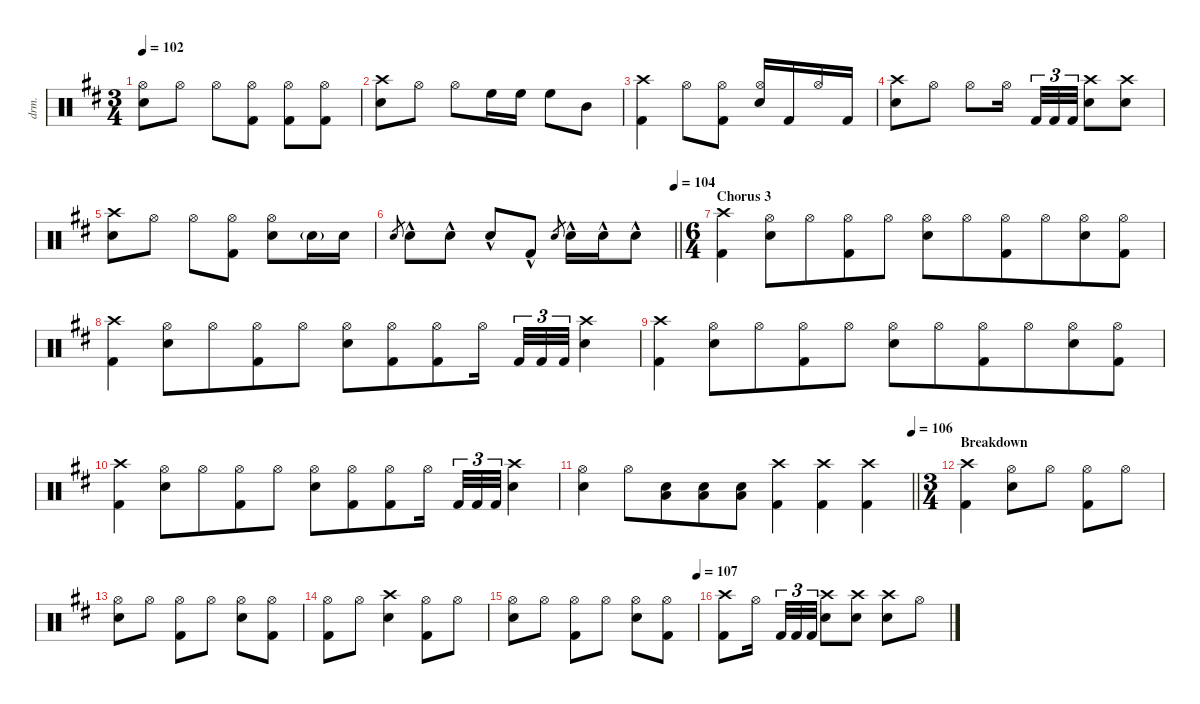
\defaultSystemsLayout 4
\hideDynamics
\bracketExtendMode nobrackets
\otherSystemsTrackNameOrientation horizontal
\track ("Lars Ulrich" "drm.") {defaultSystemsLayout 4 instrument percussion}
\staff {score}
\articulation defaults
\ts (3 4)
\tempo 102
\clef neutral
\ks bminor
("Hi-Hat (open)"{acc forcenatural} "Snare (hit) 2"{acc forcenatural}).8{dy mf beam Down} "Hi-Hat (open)"{acc forcenatural}.8{beam Down} "Hi-Hat (open)"{acc forcenatural}.8{beam Down} ("Hi-Hat (open)"{acc forcenatural} "Kick (hit) 2"{acc forcenatural}).8{beam Down} ("Hi-Hat (open)"{acc forcenatural} "Kick (hit) 2"{acc forcenatural}).8{beam Down} ("Hi-Hat (open)"{acc forcenatural} "Kick (hit) 2"{acc forcenatural}).8{beam Down} |
("Crash high (hit)"{acc forcenatural} "Snare (hit) 2"{acc forcenatural}).8{dy f beam Down} "Hi-Hat (open)"{acc forcenatural}.8{dy mf beam Down} "Hi-Hat (open)"{acc forcenatural}.8{beam Down} "High Floor Tom (hit)"{acc forcenatural}.16{dy f beam Down} "High Floor Tom (hit)"{acc forcenatural}.16{dy fff beam Down} "High Floor Tom (hit)"{acc forcenatural}.8{beam Down} "Mid Tom (hit)"{acc forcenatural}.8{beam Down} |
("Crash high (hit)"{acc forcenatural} "Kick (hit) 2"{acc forcenatural}).4{dy f beam Down} "Hi-Hat (open)"{acc forcenatural}.8{dy mf beam Down} ("Hi-Hat (open)"{acc forcenatural} "Kick (hit) 2"{acc forcenatural}).8{beam Down} ("Hi-Hat (open)"{acc forcenatural} "Snare (hit) 2"{acc forcenatural}).16{beam Up} "Kick (hit) 2"{acc forcenatural}.16{dy fff beam Up} "Hi-Hat (open)"{acc forcenatural}.16{dy mf beam Up} "Kick (hit) 2"{acc forcenatural}.16{dy fff beam Up} |
("Crash high (hit)"{acc forcenatural} "Snare (hit) 2"{acc forcenatural}).8{dy f beam Down} "Hi-Hat (open)"{acc forcenatural}.8{dy mf beam Down} "Hi-Hat (open)"{acc forcenatural}.8{beam Down} "Hi-Hat (open)"{acc forcenatural}.16{beam Down} "Kick (hit) 2"{acc forcenatural}.32{tu (3 2) dy fff beam Up} "Kick (hit) 2"{acc forcenatural}.32{tu (3 2) beam Up} "Kick (hit) 2"{acc forcenatural}.32{tu (3 2) beam Up} ("Crash high (hit)"{acc forcenatural} "Snare (hit) 2"{acc forcenatural}).8{dy f beam Down} ("Crash high (hit)"{acc forcenatural} "Snare (hit) 2"{acc forcenatural}).8{beam Down} |
("Crash high (hit)"{acc forcenatural} "Snare (hit) 2"{acc forcenatural}).8{beam Down} "Hi-Hat (open)"{acc forcenatural}.8{dy mf beam Down} "Hi-Hat (open)"{acc forcenatural}.8{beam Down} ("Hi-Hat (open)"{acc forcenatural} "Kick (hit) 2"{acc forcenatural}).8{beam Down} ("Hi-Hat (open)"{acc forcenatural} "Snare (hit) 2"{acc forcenatural}).8{beam Down} "Snare (hit) 2"{g acc forcenatural}.16{dy ff beam Down} "Snare (hit) 2"{acc forcenatural}.16{dy fff beam Down} |
\tempo (104 1)
\barLineRight lightlight "Electric Snare (hit)"{acc forcenatural}.8{gr dy mp beam Up} "Snare (hit) 2"{hac acc forcenatural}.8{dy f beam Down} "Snare (hit) 2"{hac acc forcenatural}.8{beam Down} "Snare (hit) 2"{hac acc forcenatural}.8{beam Up} "Kick (hit) 2"{hac acc forcenatural}.8{beam Up} "Electric Snare (hit)"{acc forcenatural}.8{gr dy mp beam Up} "Snare (hit) 2"{hac acc forcenatural}.16{dy f beam Down} "Snare (hit) 2"{hac acc forcenatural}.16{beam Down} "Snare (hit) 2"{hac acc forcenatural}.8{beam Down}
|
\ts (6 4)
\beaming (8 6 6)
\section ("" "Chorus 3")
("Crash high (hit)"{acc forcenatural} "Kick (hit) 2"{acc forcenatural}).4{beam Down} ("Hi-Hat (open)"{acc forcenatural} "Snare (hit) 2"{acc forcenatural}).8{beam Down} "Hi-Hat (open)"{acc forcenatural}.8{beam Down} ("Hi-Hat (open)"{acc forcenatural} "Kick (hit) 2"{acc forcenatural}).8{beam Down} "Hi-Hat (open)"{acc forcenatural}.8{beam Down} ("Hi-Hat (open)"{acc forcenatural} "Snare (hit) 2"{acc forcenatural}).8{beam Down} "Hi-Hat (open)"{acc forcenatural}.8{beam Down} ("Hi-Hat (open)"{acc forcenatural} "Kick (hit) 2"{acc forcenatural}).8{beam Down} "Hi-Hat (open)"{acc forcenatural}.8{beam Down} ("Hi-Hat (open)"{acc forcenatural} "Snare (hit) 2"{acc forcenatural}).8{beam Down} ("Hi-Hat (open)"{acc forcenatural} "Kick (hit) 2"{acc forcenatural}).8{beam Down} |
("Crash high (hit)"{acc forcenatural} "Kick (hit) 2"{acc forcenatural}).4{beam Down} ("Hi-Hat (open)"{acc forcenatural} "Snare (hit) 2"{acc forcenatural}).8{beam Down} "Hi-Hat (open)"{acc forcenatural}.8{beam Down} ("Hi-Hat (open)"{acc forcenatural} "Kick (hit) 2"{acc forcenatural}).8{beam Down} "Hi-Hat (open)"{acc forcenatural}.8{beam Down} ("Hi-Hat (open)"{acc forcenatural} "Snare (hit) 2"{acc forcenatural}).8{beam Down} ("Hi-Hat (open)"{acc forcenatural} "Kick (hit) 2"{acc forcenatural}).8{beam Down} ("Hi-Hat (open)"{acc forcenatural} "Kick (hit) 2"{acc forcenatural}).8{beam Down} "Hi-Hat (open)"{acc forcenatural}.16{beam Down} "Kick (hit) 2"{acc forcenatural}.32{tu (3 2) dy fff beam Up} "Kick (hit) 2"{acc forcenatural}.32{tu (3 2) beam Up} "Kick (hit) 2"{acc forcenatural}.32{tu (3 2) beam Up} ("Crash high (hit)"{acc forcenatural} "Snare (hit) 2"{acc forcenatural}).4{dy f beam Down} |
("Crash high (hit)"{acc forcenatural} "Kick (hit) 2"{acc forcenatural}).4{beam Down} ("Hi-Hat (open)"{acc forcenatural} "Snare (hit) 2"{acc forcenatural}).8{beam Down} "Hi-Hat (open)"{acc forcenatural}.8{beam Down} ("Hi-Hat (open)"{acc forcenatural} "Kick (hit) 2"{acc forcenatural}).8{beam Down} "Hi-Hat (open)"{acc forcenatural}.8{beam Down} ("Hi-Hat (open)"{acc forcenatural} "Snare (hit) 2"{acc forcenatural}).8{beam Down} "Hi-Hat (open)"{acc forcenatural}.8{beam Down} ("Hi-Hat (open)"{acc forcenatural} "Kick (hit) 2"{acc forcenatural}).8{beam Down} "Hi-Hat (open)"{acc forcenatural}.8{beam Down} ("Hi-Hat (open)"{acc forcenatural} "Snare (hit) 2"{acc forcenatural}).8{beam Down} ("Hi-Hat (open)"{acc forcenatural} "Kick (hit) 2"{acc forcenatural}).8{beam Down} |
("Crash high (hit)"{acc forcenatural} "Kick (hit) 2"{acc forcenatural}).4{beam Down} ("Hi-Hat (open)"{acc forcenatural} "Snare (hit) 2"{acc forcenatural}).8{beam Down} "Hi-Hat (open)"{acc forcenatural}.8{beam Down} ("Hi-Hat (open)"{acc forcenatural} "Kick (hit) 2"{acc forcenatural}).8{beam Down} "Hi-Hat (open)"{acc forcenatural}.8{beam Down} ("Hi-Hat (open)"{acc forcenatural} "Snare (hit) 2"{acc forcenatural}).8{beam Down} ("Hi-Hat (open)"{acc forcenatural} "Kick (hit) 2"{acc forcenatural}).8{beam Down} ("Hi-Hat (open)"{acc forcenatural} "Kick (hit) 2"{acc forcenatural}).8{beam Down} "Hi-Hat (open)"{acc forcenatural}.16{beam Down} "Kick (hit) 2"{acc forcenatural}.32{tu (3 2) dy fff beam Up} "Kick (hit) 2"{acc forcenatural}.32{tu (3 2) beam Up} "Kick (hit) 2"{acc forcenatural}.32{tu (3 2) beam Up} ("Crash high (hit)"{acc forcenatural} "Snare (hit) 2"{acc forcenatural}).4{dy f beam Down} |
\tempo (106 1)
\barLineRight lightlight
("Hi-Hat (open)"{acc forcenatural} "Snare (hit) 2"{acc forcenatural}).4{beam Down} "Hi-Hat (open)"{acc forcenatural}.8{beam Down} ("Snare (hit) 2"{acc forcenatural} "Low Floor Tom (hit)"{acc forcenatural}).8{beam Down} ("Snare (hit) 2"{acc forcenatural} "Low Floor Tom (hit)"{acc forcenatural}).8{beam Down} ("Snare (hit) 2"{acc forcenatural} "Low Floor Tom (hit)"{acc forcenatural}).8{beam Down} ("Crash high (hit)"{acc forcenatural} "Kick (hit) 2"{acc forcenatural}).4{beam Down} ("Crash high (hit)"{acc forcenatural} "Kick (hit) 2"{acc forcenatural}).4{beam Down} ("Crash high (hit)"{acc forcenatural} "Kick (hit) 2"{acc forcenatural}).4{beam Down} |
\ts (3 4)
\beaming (8 2 2 2)
\section ("" "Breakdown")
("Crash high (hit)"{acc forcenatural} "Kick (hit) 2"{acc forcenatural}).4{beam Down} ("Hi-Hat (open)"{acc forcenatural} "Snare (hit) 2"{acc forcenatural}).8{beam Down} "Hi-Hat (open)"{acc forcenatural}.8{beam Down} ("Hi-Hat (open)"{acc forcenatural} "Kick (hit) 2"{acc forcenatural}).8{beam Down} "Hi-Hat (open)"{acc forcenatural}.8{beam Down} |
("Hi-Hat (open)"{acc forcenatural} "Snare (hit) 2"{acc forcenatural}).8{beam Down} "Hi-Hat (open)"{acc forcenatural}.8{beam Down} ("Hi-Hat (open)"{acc forcenatural} "Kick (hit) 2"{acc forcenatural}).8{beam Down} "Hi-Hat (open)"{acc forcenatural}.8{beam Down} ("Hi-Hat (open)"{acc forcenatural} "Snare (hit) 2"{acc forcenatural}).8{beam Down} ("Hi-Hat (open)"{acc forcenatural} "Kick (hit) 2"{acc forcenatural}).8{beam Down} |
("Hi-Hat (open)"{acc forcenatural} "Kick (hit) 2"{acc forcenatural}).8{beam Down} "Hi-Hat (open)"{acc forcenatural}.8{beam Down} ("Crash high (hit)"{acc forcenatural} "Snare (hit) 2"{acc forcenatural}).4{beam Down} ("Hi-Hat (open)"{acc forcenatural} "Kick (hit) 2"{acc forcenatural}).8{beam Down} "Hi-Hat (open)"{acc forcenatural}.8{beam Down} |
\tempo (107 1)
("Hi-Hat (open)"{acc forcenatural} "Snare (hit) 2"{acc forcenatural}).8{beam Down} "Hi-Hat (open)"{acc forcenatural}.8{beam Down} ("Hi-Hat (open)"{acc forcenatural} "Kick (hit) 2"{acc forcenatural}).8{beam Down} "Hi-Hat (open)"{acc forcenatural}.8{beam Down} ("Hi-Hat (open)"{acc forcenatural} "Snare (hit) 2"{acc forcenatural}).8{beam Down} ("Hi-Hat (open)"{acc forcenatural} "Kick (hit) 2"{acc forcenatural}).8{beam Down} |
("Crash high (hit)"{acc forcenatural} "Kick (hit) 2"{acc forcenatural}).8{beam Down} "Hi-Hat (open)"{acc forcenatural}.16{beam Down} "Kick (hit) 2"{acc forcenatural}.32{tu (3 2) dy fff beam Up} "Kick (hit) 2"{acc forcenatural}.32{tu (3 2) beam Up} "Kick (hit) 2"{acc forcenatural}.32{tu (3 2) beam Up} ("Crash high (hit)"{acc forcenatural} "Snare (hit) 2"{acc forcenatural}).8{dy f beam Down} ("Crash high (hit)"{acc forcenatural} "Snare (hit) 2"{acc forcenatural}).8{beam Down} ("Crash high (hit)"{acc forcenatural} "Snare (hit) 2"{acc forcenatural}).8{beam Down} "Hi-Hat (open)"{acc forcenatural}.8{beam Down}
